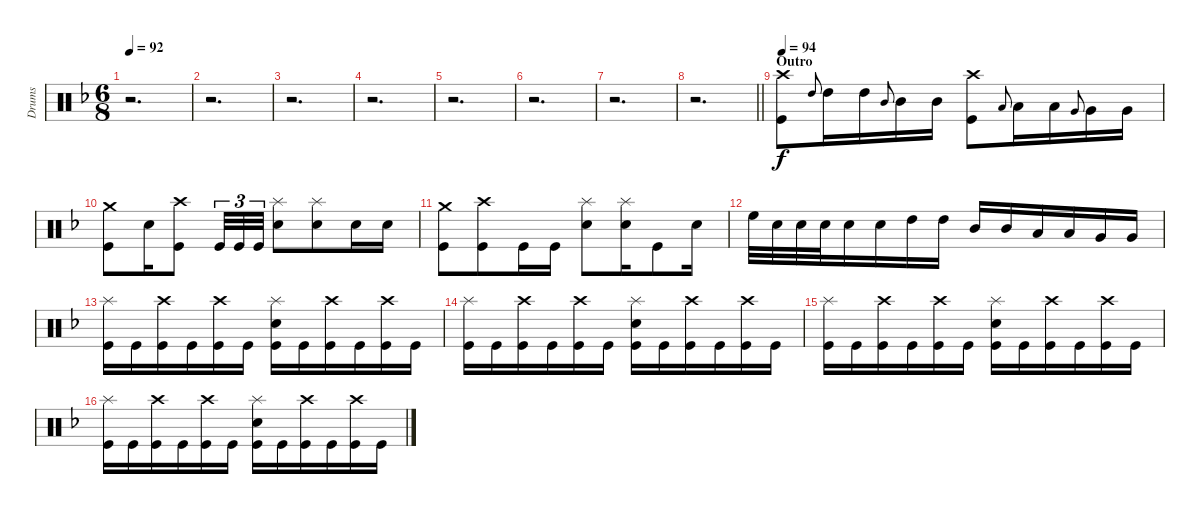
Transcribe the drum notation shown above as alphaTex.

\track ("Drums" "Drums") {instrument percussion bank 10}
\staff {score}
\articulation defaults
\ts (6 8)
\tempo 92
\clef neutral
\ks dminor
r.2{d dy mp} |
r.2{d} |
r.2{d} |
r.2{d} |
r.2{d} |
r.2{d} |
r.2{d} |
\barLineRight lightlight
r.2{d} |
\section ("" "Outro")
\tempo 94
("Crash high (hit)" "Kick (hit)").8{dy f volume 14} "High Tom (hit)".8{gr onbeat} "High Tom (hit)".16 "High Tom (hit)".16 "Mid Tom (hit)".8{gr onbeat} "Mid Tom (hit)".16 "Mid Tom (hit)".16 ("Crash high (hit)" "Kick (hit)").8 "Low Tom (hit)".8{gr onbeat} "Low Tom (hit)".16 "Low Tom (hit)".16 "Very Low Tom (hit)".8{gr onbeat} "Very Low Tom (hit)".16 "Very Low Tom (hit)".16 |
("Crash medium (hit)" "Kick (hit)").8 "Electric Snare (hit)".16 ("Crash high (hit)" "Kick (hit)").8 "Kick (hit)".32{tu (3 2)} "Kick (hit)".32{tu (3 2)} "Kick (hit)".32{tu (3 2)} ("Splash (hit)" "Electric Snare (hit)").8 ("Splash (hit)" "Electric Snare (hit)").8 "Electric Snare (hit)".16 "Electric Snare (hit)".16 |
("Crash medium (hit)" "Kick (hit)").8 ("Crash high (hit)" "Kick (hit)").8 "Kick (hit)".16 "Kick (hit)".16 ("Splash (hit)" "Electric Snare (hit)").8 ("Splash (hit)" "Electric Snare (hit)").16 "Kick (hit)".8 "Electric Snare (hit)".16 |
"High Floor Tom (hit)".32 "Electric Snare (hit)".32 "Electric Snare (hit)".32 "Electric Snare (hit)".32 "Electric Snare (hit)".16 "Electric Snare (hit)".16 "High Tom (hit)".16 "High Tom (hit)".16 "Mid Tom (hit)".16 "Mid Tom (hit)".16 "Low Tom (hit)".16 "Low Tom (hit)".16 "Very Low Tom (hit)".16 "Very Low Tom (hit)".16 |
("Splash (hit)" "Kick (hit)").16 "Kick (hit)".16 ("Crash high (hit)" "Kick (hit)").16 "Kick (hit)".16 ("Crash high (hit)" "Kick (hit)").16 "Kick (hit)".16 ("Splash (hit)" "Electric Snare (hit)" "Kick (hit)").16 "Kick (hit)".16 ("Crash high (hit)" "Kick (hit)").16 "Kick (hit)".16 ("Crash high (hit)" "Kick (hit)").16 "Kick (hit)".16 |
("Splash (hit)" "Kick (hit)").16 "Kick (hit)".16 ("Crash high (hit)" "Kick (hit)").16 "Kick (hit)".16 ("Crash high (hit)" "Kick (hit)").16 "Kick (hit)".16 ("Splash (hit)" "Electric Snare (hit)" "Kick (hit)").16 "Kick (hit)".16 ("Crash high (hit)" "Kick (hit)").16 "Kick (hit)".16 ("Crash high (hit)" "Kick (hit)").16 "Kick (hit)".16 |
("Splash (hit)" "Kick (hit)").16 "Kick (hit)".16 ("Crash high (hit)" "Kick (hit)").16 "Kick (hit)".16 ("Crash high (hit)" "Kick (hit)").16 "Kick (hit)".16 ("Splash (hit)" "Electric Snare (hit)" "Kick (hit)").16 "Kick (hit)".16 ("Crash high (hit)" "Kick (hit)").16 "Kick (hit)".16 ("Crash high (hit)" "Kick (hit)").16 "Kick (hit)".16 |
("Splash (hit)" "Kick (hit)").16 "Kick (hit)".16 ("Crash high (hit)" "Kick (hit)").16 "Kick (hit)".16 ("Crash high (hit)" "Kick (hit)").16 "Kick (hit)".16 ("Splash (hit)" "Electric Snare (hit)" "Kick (hit)").16 "Kick (hit)".16 ("Crash high (hit)" "Kick (hit)").16 "Kick (hit)".16 ("Crash high (hit)" "Kick (hit)").16 "Kick (hit)".16
